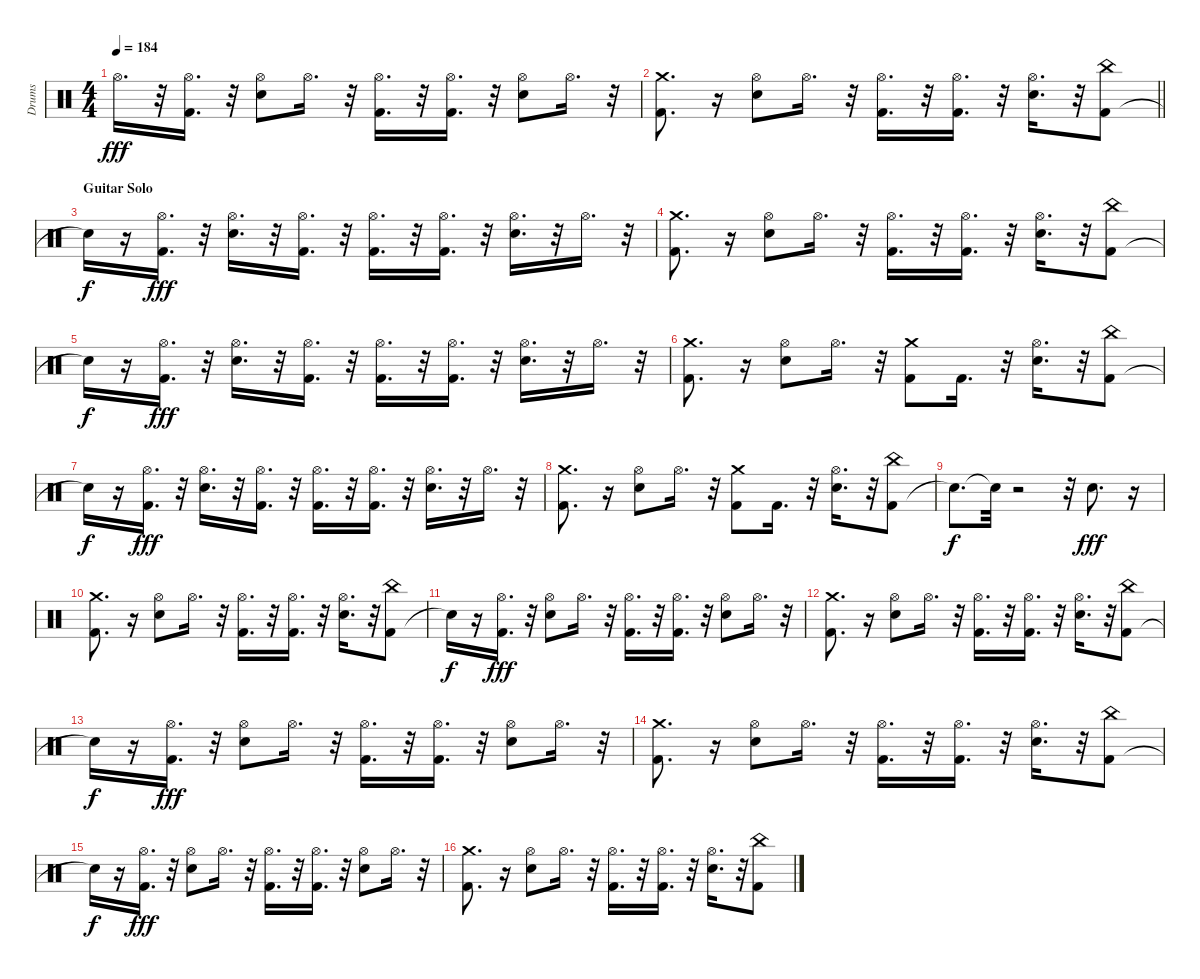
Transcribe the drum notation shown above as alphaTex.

\track ("Drums" "Drums") {instrument percussion}
\staff {score}
\articulation defaults
\ts (4 4)
\tempo 184
\clef neutral
\ks c "Hi-Hat (open)".16{d dy fff}
r.32 ("Kick (hit) 2" "Hi-Hat (open)").16{d} r.32 ("Electric Snare (hit)" "Hi-Hat (open)").8 "Hi-Hat (open)".16{d} r.32 ("Kick (hit) 2" "Hi-Hat (open)").16{d} r.32 ("Kick (hit) 2" "Hi-Hat (open)").16{d} r.32 ("Electric Snare (hit)" "Hi-Hat (open)").8 "Hi-Hat (open)".16{d} r.32 |
\barLineRight lightlight
("Crash medium (hit)" "Kick (hit) 2").8{d} r.16 ("Electric Snare (hit)" "Hi-Hat (open)").8 "Hi-Hat (open)".16{d} r.32 ("Kick (hit) 2" "Hi-Hat (open)").16{d} r.32 ("Kick (hit) 2" "Hi-Hat (open)").16{d} r.32 ("Electric Snare (hit)" "Hi-Hat (open)").16{d} r.32 ("Kick (hit) 2" "China (hit)").8 |
\section ("" "Guitar Solo")
"Snare (hit)"{t}.16{dy f} r.16 ("Kick (hit) 2" "Hi-Hat (open)").16{d dy fff} r.32 ("Electric Snare (hit)" "Hi-Hat (open)").16{d} r.32 ("Kick (hit) 2" "Hi-Hat (open)").16{d} r.32 ("Kick (hit) 2" "Hi-Hat (open)").16{d} r.32 ("Kick (hit) 2" "Hi-Hat (open)").16{d} r.32 ("Electric Snare (hit)" "Hi-Hat (open)").16{d} r.32 "Hi-Hat (open)".16{d} r.32 |
("Crash medium (hit)" "Kick (hit) 2").8{d} r.16 ("Electric Snare (hit)" "Hi-Hat (open)").8 "Hi-Hat (open)".16{d} r.32 ("Kick (hit) 2" "Hi-Hat (open)").16{d} r.32 ("Kick (hit) 2" "Hi-Hat (open)").16{d} r.32 ("Electric Snare (hit)" "Hi-Hat (open)").16{d} r.32 ("Kick (hit) 2" "China (hit)").8 |
"Snare (hit)"{t}.16{dy f} r.16 ("Kick (hit) 2" "Hi-Hat (open)").16{d dy fff} r.32 ("Electric Snare (hit)" "Hi-Hat (open)").16{d} r.32 ("Kick (hit) 2" "Hi-Hat (open)").16{d} r.32 ("Kick (hit) 2" "Hi-Hat (open)").16{d} r.32 ("Kick (hit) 2" "Hi-Hat (open)").16{d} r.32 ("Electric Snare (hit)" "Hi-Hat (open)").16{d} r.32 "Hi-Hat (open)".16{d} r.32 |
("Crash medium (hit)" "Kick (hit) 2").8{d} r.16 ("Hi-Hat (open)" "Electric Snare (hit)").8 "Hi-Hat (open)".16{d} r.32 ("Kick (hit) 2" "Crash medium (hit)").8 "Kick (hit) 2".16{d} r.32 ("Electric Snare (hit)" "Hi-Hat (open)").16{d} r.32 ("Kick (hit) 2" "China (hit)").8 |
"Snare (hit)"{t}.16{dy f} r.16 ("Kick (hit) 2" "Hi-Hat (open)").16{d dy fff} r.32 ("Electric Snare (hit)" "Hi-Hat (open)").16{d} r.32 ("Kick (hit) 2" "Hi-Hat (open)").16{d} r.32 ("Kick (hit) 2" "Hi-Hat (open)").16{d} r.32 ("Kick (hit) 2" "Hi-Hat (open)").16{d} r.32 ("Electric Snare (hit)" "Hi-Hat (open)").16{d} r.32 "Hi-Hat (open)".16{d} r.32 |
("Crash medium (hit)" "Kick (hit) 2").8{d} r.16 ("Electric Snare (hit)" "Hi-Hat (open)").8 "Hi-Hat (open)".16{d} r.32 ("Kick (hit) 2" "Crash medium (hit)").8 "Kick (hit) 2".16{d} r.32 ("Electric Snare (hit)" "Hi-Hat (open)").16{d} r.32 ("Kick (hit) 2" "China (hit)").8 |
"Snare (hit)"{t}.8{d dy f} "Snare (hit)"{t}.32 r.2 r.32 "Electric Snare (hit)".8{d dy fff} r.16 |
("Kick (hit) 2" "Crash medium (hit)").8{d} r.16 ("Electric Snare (hit)" "Hi-Hat (open)").8 "Hi-Hat (open)".16{d} r.32 ("Hi-Hat (open)" "Kick (hit) 2").16{d} r.32 ("Hi-Hat (open)" "Kick (hit) 2").16{d} r.32 ("Hi-Hat (open)" "Electric Snare (hit)").16{d} r.32 ("Kick (hit) 2" "China (hit)").8 |
"Snare (hit)"{t}.16{dy f} r.16 ("Kick (hit) 2" "Hi-Hat (open)").16{d dy fff} r.32 ("Electric Snare (hit)" "Hi-Hat (open)").8 "Hi-Hat (open)".16{d} r.32 ("Kick (hit) 2" "Hi-Hat (open)").16{d} r.32 ("Kick (hit) 2" "Hi-Hat (open)").16{d} r.32 ("Electric Snare (hit)" "Hi-Hat (open)").8 "Hi-Hat (open)".16{d} r.32 |
("Kick (hit) 2" "Crash medium (hit)").8{d} r.16 ("Electric Snare (hit)" "Hi-Hat (open)").8 "Hi-Hat (open)".16{d} r.32 ("Hi-Hat (open)" "Kick (hit) 2").16{d} r.32 ("Hi-Hat (open)" "Kick (hit) 2").16{d} r.32 ("Hi-Hat (open)" "Electric Snare (hit)").16{d} r.32 ("Kick (hit) 2" "China (hit)").8 |
"Snare (hit)"{t}.16{dy f} r.16 ("Kick (hit) 2" "Hi-Hat (open)").16{d dy fff} r.32 ("Electric Snare (hit)" "Hi-Hat (open)").8 "Hi-Hat (open)".16{d} r.32 ("Kick (hit) 2" "Hi-Hat (open)").16{d} r.32 ("Kick (hit) 2" "Hi-Hat (open)").16{d} r.32 ("Electric Snare (hit)" "Hi-Hat (open)").8 "Hi-Hat (open)".16{d} r.32 |
("Kick (hit) 2" "Crash medium (hit)").8{d} r.16 ("Electric Snare (hit)" "Hi-Hat (open)").8 "Hi-Hat (open)".16{d} r.32 ("Hi-Hat (open)" "Kick (hit) 2").16{d} r.32 ("Hi-Hat (open)" "Kick (hit) 2").16{d} r.32 ("Hi-Hat (open)" "Electric Snare (hit)").16{d} r.32 ("Kick (hit) 2" "China (hit)").8 |
"Snare (hit)"{t}.16{dy f} r.16 ("Kick (hit) 2" "Hi-Hat (open)").16{d dy fff} r.32 ("Electric Snare (hit)" "Hi-Hat (open)").8 "Hi-Hat (open)".16{d} r.32 ("Kick (hit) 2" "Hi-Hat (open)").16{d} r.32 ("Kick (hit) 2" "Hi-Hat (open)").16{d} r.32 ("Electric Snare (hit)" "Hi-Hat (open)").8 "Hi-Hat (open)".16{d} r.32 |
("Kick (hit) 2" "Crash medium (hit)").8{d} r.16 ("Electric Snare (hit)" "Hi-Hat (open)").8 "Hi-Hat (open)".16{d} r.32 ("Hi-Hat (open)" "Kick (hit) 2").16{d} r.32 ("Hi-Hat (open)" "Kick (hit) 2").16{d} r.32 ("Hi-Hat (open)" "Electric Snare (hit)").16{d} r.32 ("Kick (hit) 2" "China (hit)").8
